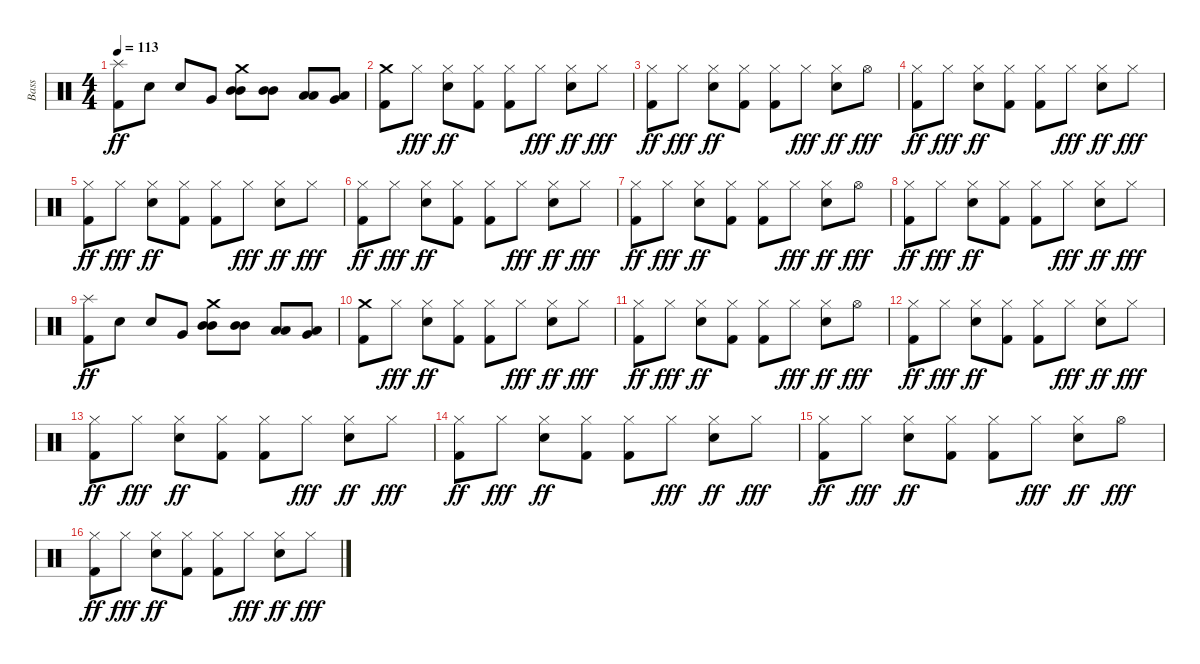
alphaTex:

\track (" Bass" " Bass") {instrument percussion}
\staff {score}
\articulation defaults
\ts (4 4)
\tempo 113
\clef neutral
\ks c
("Splash (hit)" "Kick (hit) 2").8{dy ff} "Snare (hit) 2".8 "Snare (hit) 2".8 "Very Low Tom (hit)".8 ("Crash medium (hit)" "Mid Tom (hit)" "Mid Tom (hit)").8 ("Mid Tom (hit)" "Mid Tom (hit)").8 ("Low Tom (hit)" "Low Tom (hit)").8 ("Very Low Tom (hit)" "Low Floor Tom (hit)").8 |
("Crash medium (hit)" "Kick (hit) 2").8 "Hi-Hat (closed)".8{dy fff} ("Hi-Hat (closed)" "Snare (hit) 2").8{dy ff} ("Hi-Hat (closed)" "Kick (hit) 2").8 ("Hi-Hat (closed)" "Kick (hit) 2").8 "Hi-Hat (closed)".8{dy fff} ("Hi-Hat (closed)" "Snare (hit) 2").8{dy ff} "Hi-Hat (closed)".8{dy fff} |
("Hi-Hat (closed)" "Kick (hit) 2").8{dy ff} "Hi-Hat (closed)".8{dy fff} ("Hi-Hat (closed)" "Snare (hit) 2").8{dy ff} ("Hi-Hat (closed)" "Kick (hit) 2").8 ("Hi-Hat (closed)" "Kick (hit) 2").8 "Hi-Hat (closed)".8{dy fff} ("Hi-Hat (closed)" "Snare (hit) 2").8{dy ff} "Hi-Hat (open)".8{dy fff} |
("Hi-Hat (closed)" "Kick (hit) 2").8{dy ff} "Hi-Hat (closed)".8{dy fff} ("Hi-Hat (closed)" "Snare (hit) 2").8{dy ff} ("Hi-Hat (closed)" "Kick (hit) 2").8 ("Hi-Hat (closed)" "Kick (hit) 2").8 "Hi-Hat (closed)".8{dy fff} ("Hi-Hat (closed)" "Snare (hit) 2").8{dy ff} "Hi-Hat (closed)".8{dy fff} |
("Hi-Hat (closed)" "Kick (hit) 2").8{dy ff} "Hi-Hat (closed)".8{dy fff} ("Hi-Hat (closed)" "Snare (hit) 2").8{dy ff} ("Hi-Hat (closed)" "Kick (hit) 2").8 ("Hi-Hat (closed)" "Kick (hit) 2").8 "Hi-Hat (closed)".8{dy fff} ("Hi-Hat (closed)" "Snare (hit) 2").8{dy ff} "Hi-Hat (closed)".8{dy fff} |
("Hi-Hat (closed)" "Kick (hit) 2").8{dy ff} "Hi-Hat (closed)".8{dy fff} ("Hi-Hat (closed)" "Snare (hit) 2").8{dy ff} ("Hi-Hat (closed)" "Kick (hit) 2").8 ("Hi-Hat (closed)" "Kick (hit) 2").8 "Hi-Hat (closed)".8{dy fff} ("Hi-Hat (closed)" "Snare (hit) 2").8{dy ff} "Hi-Hat (closed)".8{dy fff} |
("Hi-Hat (closed)" "Kick (hit) 2").8{dy ff} "Hi-Hat (closed)".8{dy fff} ("Hi-Hat (closed)" "Snare (hit) 2").8{dy ff} ("Hi-Hat (closed)" "Kick (hit) 2").8 ("Hi-Hat (closed)" "Kick (hit) 2").8 "Hi-Hat (closed)".8{dy fff} ("Hi-Hat (closed)" "Snare (hit) 2").8{dy ff} "Hi-Hat (open)".8{dy fff} |
("Hi-Hat (closed)" "Kick (hit) 2").8{dy ff} "Hi-Hat (closed)".8{dy fff} ("Hi-Hat (closed)" "Snare (hit) 2").8{dy ff} ("Hi-Hat (closed)" "Kick (hit) 2").8 ("Hi-Hat (closed)" "Kick (hit) 2").8 "Hi-Hat (closed)".8{dy fff} ("Hi-Hat (closed)" "Snare (hit) 2").8{dy ff} "Hi-Hat (closed)".8{dy fff} |
("Splash (hit)" "Kick (hit) 2").8{dy ff} "Snare (hit) 2".8 "Snare (hit) 2".8 "Very Low Tom (hit)".8 ("Crash medium (hit)" "Mid Tom (hit)" "Mid Tom (hit)").8 ("Mid Tom (hit)" "Mid Tom (hit)").8 ("Low Tom (hit)" "Low Tom (hit)").8 ("Very Low Tom (hit)" "Low Floor Tom (hit)").8 |
("Crash medium (hit)" "Kick (hit) 2").8 "Hi-Hat (closed)".8{dy fff} ("Hi-Hat (closed)" "Snare (hit) 2").8{dy ff} ("Hi-Hat (closed)" "Kick (hit) 2").8 ("Hi-Hat (closed)" "Kick (hit) 2").8 "Hi-Hat (closed)".8{dy fff} ("Hi-Hat (closed)" "Snare (hit) 2").8{dy ff} "Hi-Hat (closed)".8{dy fff} |
("Hi-Hat (closed)" "Kick (hit) 2").8{dy ff} "Hi-Hat (closed)".8{dy fff} ("Hi-Hat (closed)" "Snare (hit) 2").8{dy ff} ("Hi-Hat (closed)" "Kick (hit) 2").8 ("Hi-Hat (closed)" "Kick (hit) 2").8 "Hi-Hat (closed)".8{dy fff} ("Hi-Hat (closed)" "Snare (hit) 2").8{dy ff} "Hi-Hat (open)".8{dy fff} |
("Hi-Hat (closed)" "Kick (hit) 2").8{dy ff} "Hi-Hat (closed)".8{dy fff} ("Hi-Hat (closed)" "Snare (hit) 2").8{dy ff} ("Hi-Hat (closed)" "Kick (hit) 2").8 ("Hi-Hat (closed)" "Kick (hit) 2").8 "Hi-Hat (closed)".8{dy fff} ("Hi-Hat (closed)" "Snare (hit) 2").8{dy ff} "Hi-Hat (closed)".8{dy fff} |
("Hi-Hat (closed)" "Kick (hit) 2").8{dy ff} "Hi-Hat (closed)".8{dy fff} ("Hi-Hat (closed)" "Snare (hit) 2").8{dy ff} ("Hi-Hat (closed)" "Kick (hit) 2").8 ("Hi-Hat (closed)" "Kick (hit) 2").8 "Hi-Hat (closed)".8{dy fff} ("Hi-Hat (closed)" "Snare (hit) 2").8{dy ff} "Hi-Hat (closed)".8{dy fff} |
("Hi-Hat (closed)" "Kick (hit) 2").8{dy ff} "Hi-Hat (closed)".8{dy fff} ("Hi-Hat (closed)" "Snare (hit) 2").8{dy ff} ("Hi-Hat (closed)" "Kick (hit) 2").8 ("Hi-Hat (closed)" "Kick (hit) 2").8 "Hi-Hat (closed)".8{dy fff} ("Hi-Hat (closed)" "Snare (hit) 2").8{dy ff} "Hi-Hat (closed)".8{dy fff} |
("Hi-Hat (closed)" "Kick (hit) 2").8{dy ff} "Hi-Hat (closed)".8{dy fff} ("Hi-Hat (closed)" "Snare (hit) 2").8{dy ff} ("Hi-Hat (closed)" "Kick (hit) 2").8 ("Hi-Hat (closed)" "Kick (hit) 2").8 "Hi-Hat (closed)".8{dy fff} ("Hi-Hat (closed)" "Snare (hit) 2").8{dy ff} "Hi-Hat (open)".8{dy fff} |
("Hi-Hat (closed)" "Kick (hit) 2").8{dy ff} "Hi-Hat (closed)".8{dy fff} ("Hi-Hat (closed)" "Snare (hit) 2").8{dy ff} ("Hi-Hat (closed)" "Kick (hit) 2").8 ("Hi-Hat (closed)" "Kick (hit) 2").8 "Hi-Hat (closed)".8{dy fff} ("Hi-Hat (closed)" "Snare (hit) 2").8{dy ff} "Hi-Hat (closed)".8{dy fff}
